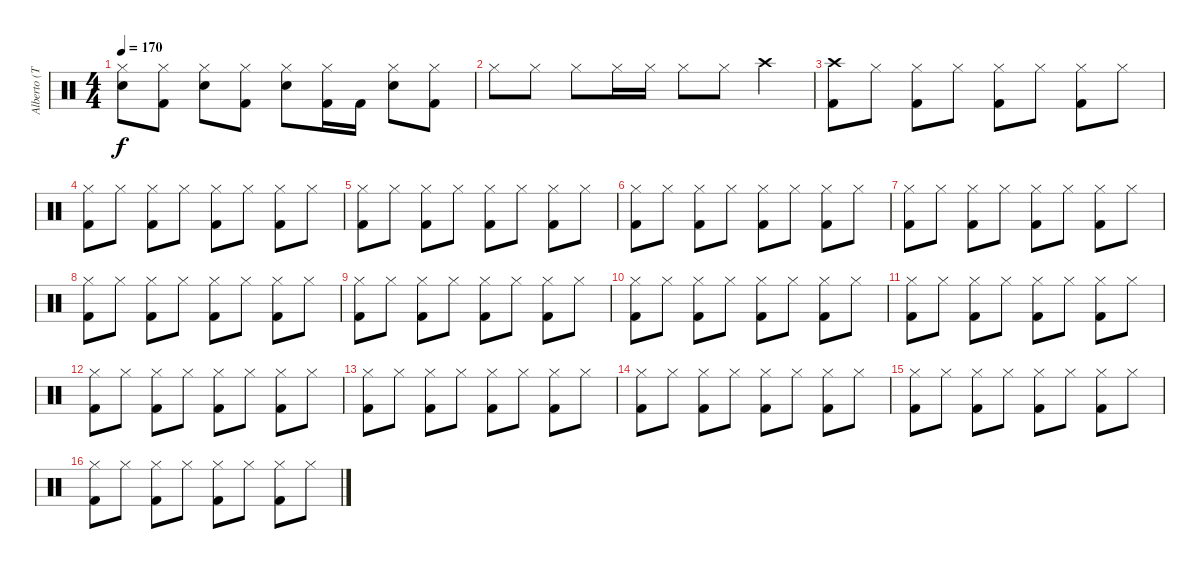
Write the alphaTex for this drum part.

\track ("Alberto (Toshi)" "Alberto (T") {instrument percussion}
\staff {score}
\articulation defaults
\ts (4 4)
\tempo 170
\clef neutral
\ks c
("Hi-Hat (closed)" "Snare (hit) 2").8{dy f} ("Hi-Hat (closed)" "Kick (hit) 2").8 ("Hi-Hat (closed)" "Snare (hit) 2").8 ("Hi-Hat (closed)" "Kick (hit) 2").8 ("Hi-Hat (closed)" "Snare (hit) 2").8 ("Hi-Hat (closed)" "Kick (hit) 2").16 "Kick (hit) 2".16 ("Hi-Hat (closed)" "Snare (hit) 2").8 ("Hi-Hat (closed)" "Kick (hit) 2").8 |
"Hi-Hat (closed)".8 "Hi-Hat (closed)".8 "Hi-Hat (closed)".8 "Hi-Hat (closed)".16 "Hi-Hat (closed)".16 "Hi-Hat (closed)".8 "Hi-Hat (closed)".8 "Crash high (hit)".4 |
("Crash high (hit)" "Kick (hit) 2").8 "Hi-Hat (closed)".8 ("Hi-Hat (closed)" "Kick (hit) 2").8 "Hi-Hat (closed)".8 ("Hi-Hat (closed)" "Kick (hit) 2").8 "Hi-Hat (closed)".8 ("Hi-Hat (closed)" "Kick (hit) 2").8 "Hi-Hat (closed)".8 |
("Hi-Hat (closed)" "Kick (hit) 2").8{volume 16} "Hi-Hat (closed)".8 ("Hi-Hat (closed)" "Kick (hit) 2").8 "Hi-Hat (closed)".8 ("Hi-Hat (closed)" "Kick (hit) 2").8 "Hi-Hat (closed)".8 ("Hi-Hat (closed)" "Kick (hit) 2").8 "Hi-Hat (closed)".8 |
("Hi-Hat (closed)" "Kick (hit) 2").8 "Hi-Hat (closed)".8 ("Hi-Hat (closed)" "Kick (hit) 2").8 "Hi-Hat (closed)".8 ("Hi-Hat (closed)" "Kick (hit) 2").8 "Hi-Hat (closed)".8 ("Hi-Hat (closed)" "Kick (hit) 2").8 "Hi-Hat (closed)".8 |
("Hi-Hat (closed)" "Kick (hit) 2").8 "Hi-Hat (closed)".8 ("Hi-Hat (closed)" "Kick (hit) 2").8 "Hi-Hat (closed)".8 ("Hi-Hat (closed)" "Kick (hit) 2").8 "Hi-Hat (closed)".8 ("Hi-Hat (closed)" "Kick (hit) 2").8 "Hi-Hat (closed)".8 |
("Hi-Hat (closed)" "Kick (hit) 2").8 "Hi-Hat (closed)".8 ("Hi-Hat (closed)" "Kick (hit) 2").8 "Hi-Hat (closed)".8 ("Hi-Hat (closed)" "Kick (hit) 2").8 "Hi-Hat (closed)".8 ("Hi-Hat (closed)" "Kick (hit) 2").8 "Hi-Hat (closed)".8 |
("Hi-Hat (closed)" "Kick (hit) 2").8 "Hi-Hat (closed)".8 ("Hi-Hat (closed)" "Kick (hit) 2").8 "Hi-Hat (closed)".8 ("Hi-Hat (closed)" "Kick (hit) 2").8 "Hi-Hat (closed)".8 ("Hi-Hat (closed)" "Kick (hit) 2").8 "Hi-Hat (closed)".8 |
("Hi-Hat (closed)" "Kick (hit) 2").8 "Hi-Hat (closed)".8 ("Hi-Hat (closed)" "Kick (hit) 2").8 "Hi-Hat (closed)".8 ("Hi-Hat (closed)" "Kick (hit) 2").8 "Hi-Hat (closed)".8 ("Hi-Hat (closed)" "Kick (hit) 2").8 "Hi-Hat (closed)".8 |
("Hi-Hat (closed)" "Kick (hit) 2").8 "Hi-Hat (closed)".8 ("Hi-Hat (closed)" "Kick (hit) 2").8 "Hi-Hat (closed)".8 ("Hi-Hat (closed)" "Kick (hit) 2").8 "Hi-Hat (closed)".8 ("Hi-Hat (closed)" "Kick (hit) 2").8 "Hi-Hat (closed)".8 |
("Hi-Hat (closed)" "Kick (hit) 2").8 "Hi-Hat (closed)".8 ("Hi-Hat (closed)" "Kick (hit) 2").8 "Hi-Hat (closed)".8 ("Hi-Hat (closed)" "Kick (hit) 2").8 "Hi-Hat (closed)".8 ("Hi-Hat (closed)" "Kick (hit) 2").8 "Hi-Hat (closed)".8 |
("Hi-Hat (closed)" "Kick (hit) 2").8 "Hi-Hat (closed)".8 ("Hi-Hat (closed)" "Kick (hit) 2").8 "Hi-Hat (closed)".8 ("Hi-Hat (closed)" "Kick (hit) 2").8 "Hi-Hat (closed)".8 ("Hi-Hat (closed)" "Kick (hit) 2").8 "Hi-Hat (closed)".8 |
("Hi-Hat (closed)" "Kick (hit) 2").8 "Hi-Hat (closed)".8 ("Hi-Hat (closed)" "Kick (hit) 2").8 "Hi-Hat (closed)".8 ("Hi-Hat (closed)" "Kick (hit) 2").8 "Hi-Hat (closed)".8 ("Hi-Hat (closed)" "Kick (hit) 2").8 "Hi-Hat (closed)".8 |
("Hi-Hat (closed)" "Kick (hit) 2").8 "Hi-Hat (closed)".8 ("Hi-Hat (closed)" "Kick (hit) 2").8 "Hi-Hat (closed)".8 ("Hi-Hat (closed)" "Kick (hit) 2").8 "Hi-Hat (closed)".8 ("Hi-Hat (closed)" "Kick (hit) 2").8 "Hi-Hat (closed)".8 |
("Hi-Hat (closed)" "Kick (hit) 2").8 "Hi-Hat (closed)".8 ("Hi-Hat (closed)" "Kick (hit) 2").8 "Hi-Hat (closed)".8 ("Hi-Hat (closed)" "Kick (hit) 2").8 "Hi-Hat (closed)".8 ("Hi-Hat (closed)" "Kick (hit) 2").8 "Hi-Hat (closed)".8 |
("Hi-Hat (closed)" "Kick (hit) 2").8 "Hi-Hat (closed)".8 ("Hi-Hat (closed)" "Kick (hit) 2").8 "Hi-Hat (closed)".8 ("Hi-Hat (closed)" "Kick (hit) 2").8 "Hi-Hat (closed)".8 ("Hi-Hat (closed)" "Kick (hit) 2").8 "Hi-Hat (closed)".8
